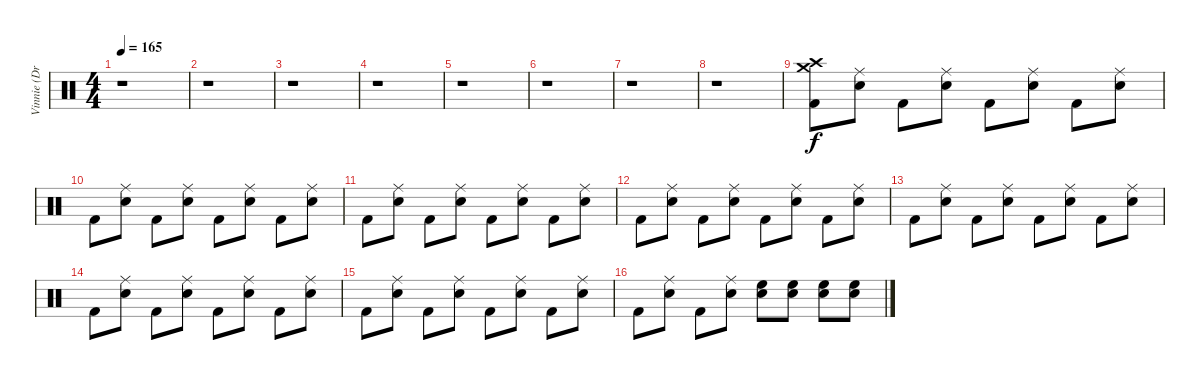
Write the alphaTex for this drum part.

\track ("Vinnie (Drums)" "Vinnie (Dr") {instrument percussion}
\staff {score}
\articulation defaults
\ts (4 4)
\tempo 165
\clef neutral
\ks c
r.1{dy f} |
r.1 |
r.1 |
r.1 |
r.1 |
r.1 |
r.1 |
r.1 |
("Kick (hit) 2" "Crash high (hit)" "Crash medium (hit)").8{volume 12} ("Snare (hit) 2" "Ride (middle)").8 "Kick (hit) 2".8 ("Snare (hit) 2" "Ride (middle)").8 "Kick (hit) 2".8 ("Snare (hit) 2" "Ride (middle)").8 "Kick (hit) 2".8 ("Snare (hit) 2" "Ride (middle)").8 |
"Kick (hit) 2".8 ("Snare (hit) 2" "Ride (middle)").8 "Kick (hit) 2".8 ("Snare (hit) 2" "Ride (middle)").8 "Kick (hit) 2".8 ("Snare (hit) 2" "Ride (middle)").8 "Kick (hit) 2".8 ("Snare (hit) 2" "Ride (middle)").8 |
"Kick (hit) 2".8 ("Snare (hit) 2" "Ride (middle)").8 "Kick (hit) 2".8 ("Snare (hit) 2" "Ride (middle)").8 "Kick (hit) 2".8 ("Snare (hit) 2" "Ride (middle)").8 "Kick (hit) 2".8 ("Snare (hit) 2" "Ride (middle)").8 |
"Kick (hit) 2".8 ("Snare (hit) 2" "Ride (middle)").8 "Kick (hit) 2".8 ("Snare (hit) 2" "Ride (middle)").8 "Kick (hit) 2".8 ("Snare (hit) 2" "Ride (middle)").8 "Kick (hit) 2".8 ("Snare (hit) 2" "Ride (middle)").8 |
"Kick (hit) 2".8 ("Snare (hit) 2" "Ride (middle)").8 "Kick (hit) 2".8 ("Snare (hit) 2" "Ride (middle)").8 "Kick (hit) 2".8 ("Snare (hit) 2" "Ride (middle)").8 "Kick (hit) 2".8 ("Snare (hit) 2" "Ride (middle)").8 |
"Kick (hit) 2".8 ("Snare (hit) 2" "Ride (middle)").8 "Kick (hit) 2".8 ("Snare (hit) 2" "Ride (middle)").8 "Kick (hit) 2".8 ("Snare (hit) 2" "Ride (middle)").8 "Kick (hit) 2".8 ("Snare (hit) 2" "Ride (middle)").8 |
"Kick (hit) 2".8 ("Snare (hit) 2" "Ride (middle)").8 "Kick (hit) 2".8 ("Snare (hit) 2" "Ride (middle)").8 "Kick (hit) 2".8 ("Snare (hit) 2" "Ride (middle)").8 "Kick (hit) 2".8 ("Snare (hit) 2" "Ride (middle)").8 |
"Kick (hit) 2".8 ("Snare (hit) 2" "Ride (middle)").8 "Kick (hit) 2".8 ("Snare (hit) 2" "Ride (middle)").8 ("Snare (hit) 2" "High Floor Tom (hit)").8 ("Snare (hit) 2" "High Floor Tom (hit)").8 ("Snare (hit) 2" "High Floor Tom (hit)").8 ("Snare (hit) 2" "High Floor Tom (hit)").8
